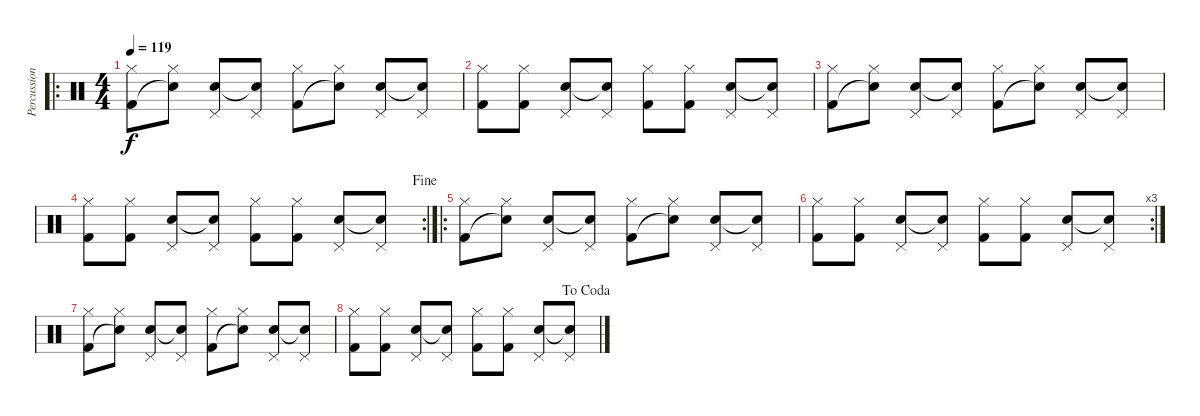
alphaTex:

\track ("Percussion" "Percussion") {instrument percussion}
\staff {score}
\articulation defaults
\ro
\ts (4 4)
\tempo 119
\clef neutral
\ks c
("Hi-Hat (closed)" "Kick (hit) 2").8{dy f} ("Hi-Hat (closed)" "Snare (hit)"{t}).8 ("Pedal Hi-Hat (hit)" "Electric Snare (hit)").8 ("Pedal Hi-Hat (hit)" "Snare (hit)"{t}).8 ("Hi-Hat (closed)" "Kick (hit) 2").8 ("Hi-Hat (closed)" "Snare (hit)"{t}).8 ("Pedal Hi-Hat (hit)" "Electric Snare (hit)").8 ("Pedal Hi-Hat (hit)" "Snare (hit)"{t}).8 |
("Hi-Hat (closed)" "Kick (hit) 2").8 ("Hi-Hat (closed)" "Kick (hit) 2").8 ("Pedal Hi-Hat (hit)" "Electric Snare (hit)").8 ("Pedal Hi-Hat (hit)" "Snare (hit)"{t}).8 ("Hi-Hat (closed)" "Kick (hit) 2").8 ("Hi-Hat (closed)" "Kick (hit) 2").8 ("Pedal Hi-Hat (hit)" "Electric Snare (hit)").8 ("Pedal Hi-Hat (hit)" "Snare (hit)"{t}).8 |
("Hi-Hat (closed)" "Kick (hit) 2").8 ("Hi-Hat (closed)" "Snare (hit)"{t}).8 ("Pedal Hi-Hat (hit)" "Electric Snare (hit)").8 ("Pedal Hi-Hat (hit)" "Snare (hit)"{t}).8 ("Hi-Hat (closed)" "Kick (hit) 2").8 ("Hi-Hat (closed)" "Snare (hit)"{t}).8 ("Pedal Hi-Hat (hit)" "Electric Snare (hit)").8 ("Pedal Hi-Hat (hit)" "Snare (hit)"{t}).8 |
\rc 2
\jump fine
("Hi-Hat (closed)" "Kick (hit) 2").8 ("Hi-Hat (closed)" "Kick (hit) 2").8 ("Pedal Hi-Hat (hit)" "Electric Snare (hit)").8 ("Pedal Hi-Hat (hit)" "Snare (hit)"{t}).8 ("Hi-Hat (closed)" "Kick (hit) 2").8 ("Hi-Hat (closed)" "Kick (hit) 2").8 ("Pedal Hi-Hat (hit)" "Electric Snare (hit)").8 ("Pedal Hi-Hat (hit)" "Snare (hit)"{t}).8 |
\ro
("Hi-Hat (closed)" "Kick (hit) 2").8 ("Hi-Hat (closed)" "Snare (hit)"{t}).8 ("Pedal Hi-Hat (hit)" "Electric Snare (hit)").8 ("Pedal Hi-Hat (hit)" "Snare (hit)"{t}).8 ("Hi-Hat (closed)" "Kick (hit) 2").8 ("Hi-Hat (closed)" "Snare (hit)"{t}).8 ("Pedal Hi-Hat (hit)" "Electric Snare (hit)").8 ("Pedal Hi-Hat (hit)" "Snare (hit)"{t}).8 |
\rc 3
("Hi-Hat (closed)" "Kick (hit) 2").8 ("Hi-Hat (closed)" "Kick (hit) 2").8 ("Pedal Hi-Hat (hit)" "Electric Snare (hit)").8 ("Pedal Hi-Hat (hit)" "Snare (hit)"{t}).8 ("Hi-Hat (closed)" "Kick (hit) 2").8 ("Hi-Hat (closed)" "Kick (hit) 2").8 ("Pedal Hi-Hat (hit)" "Electric Snare (hit)").8 ("Pedal Hi-Hat (hit)" "Snare (hit)"{t}).8 |
("Hi-Hat (closed)" "Kick (hit) 2").8 ("Hi-Hat (closed)" "Snare (hit)"{t}).8 ("Pedal Hi-Hat (hit)" "Electric Snare (hit)").8 ("Pedal Hi-Hat (hit)" "Snare (hit)"{t}).8 ("Hi-Hat (closed)" "Kick (hit) 2").8 ("Hi-Hat (closed)" "Snare (hit)"{t}).8 ("Pedal Hi-Hat (hit)" "Electric Snare (hit)").8 ("Pedal Hi-Hat (hit)" "Snare (hit)"{t}).8 |
\jump dacoda
("Hi-Hat (closed)" "Kick (hit) 2").8 ("Hi-Hat (closed)" "Kick (hit) 2").8 ("Pedal Hi-Hat (hit)" "Electric Snare (hit)").8 ("Pedal Hi-Hat (hit)" "Snare (hit)"{t}).8 ("Hi-Hat (closed)" "Kick (hit) 2").8 ("Hi-Hat (closed)" "Kick (hit) 2").8 ("Pedal Hi-Hat (hit)" "Electric Snare (hit)").8 ("Pedal Hi-Hat (hit)" "Snare (hit)"{t}).8
